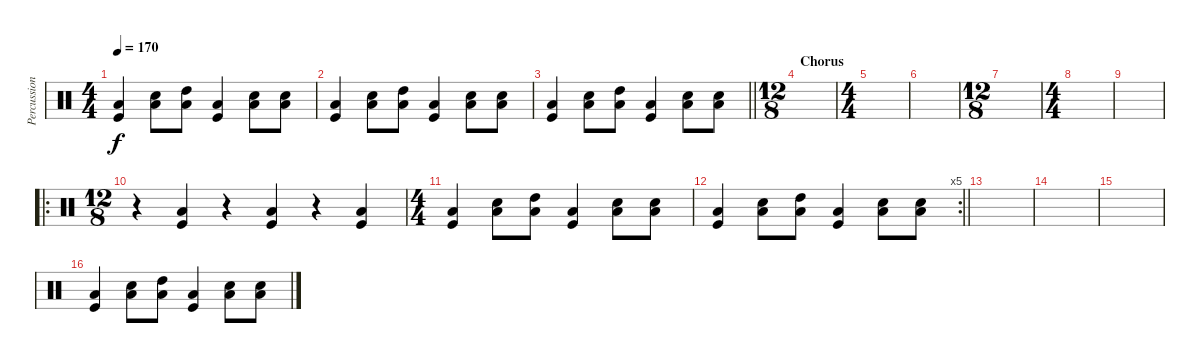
\track ("Percussion" "Percussion") {instrument percussion}
\staff {score}
\articulation defaults
\ts (4 4)
\tempo 170
\clef neutral
\ks c
("Kick (hit)" "Low Tom (hit)").4{dy f} ("Low Tom (hit)" "Snare (hit) 2").8 ("Low Tom (hit)" "High Tom (hit)").8 ("Kick (hit)" "Low Tom (hit)").4 ("Low Tom (hit)" "Snare (hit) 2").8 ("Low Tom (hit)" "Snare (hit) 2").8 |
("Kick (hit)" "Low Tom (hit)").4 ("Low Tom (hit)" "Snare (hit) 2").8 ("Low Tom (hit)" "High Tom (hit)").8 ("Kick (hit)" "Low Tom (hit)").4 ("Low Tom (hit)" "Snare (hit) 2").8 ("Low Tom (hit)" "Snare (hit) 2").8 |
\barLineRight lightlight
("Kick (hit)" "Low Tom (hit)").4 ("Low Tom (hit)" "Snare (hit) 2").8 ("Low Tom (hit)" "High Tom (hit)").8 ("Kick (hit)" "Low Tom (hit)").4 ("Low Tom (hit)" "Snare (hit) 2").8 ("Low Tom (hit)" "Snare (hit) 2").8 |
\ts (12 8)
\section ("" "Chorus")
|
\ts (4 4)
|
|
\ts (12 8)
|
\ts (4 4)
|
|
\ro
\ts (12 8)
r.4 ("Kick (hit)" "Low Tom (hit)").4 r.4 ("Kick (hit)" "Low Tom (hit)").4 r.4 ("Kick (hit)" "Low Tom (hit)").4 |
\ts (4 4)
("Kick (hit)" "Low Tom (hit)").4 ("Low Tom (hit)" "Snare (hit) 2").8 ("Low Tom (hit)" "High Tom (hit)").8 ("Kick (hit)" "Low Tom (hit)").4 ("Low Tom (hit)" "Snare (hit) 2").8 ("Low Tom (hit)" "Snare (hit) 2").8 |
\rc 5
\barLineRight lightlight
("Kick (hit)" "Low Tom (hit)").4 ("Low Tom (hit)" "Snare (hit) 2").8 ("Low Tom (hit)" "High Tom (hit)").8 ("Kick (hit)" "Low Tom (hit)").4 ("Low Tom (hit)" "Snare (hit) 2").8 ("Low Tom (hit)" "Snare (hit) 2").8 |
|
|
|
("Kick (hit)" "Low Tom (hit)").4 ("Low Tom (hit)" "Snare (hit) 2").8 ("Low Tom (hit)" "High Tom (hit)").8 ("Kick (hit)" "Low Tom (hit)").4 ("Low Tom (hit)" "Snare (hit) 2").8 ("Low Tom (hit)" "Snare (hit) 2").8
